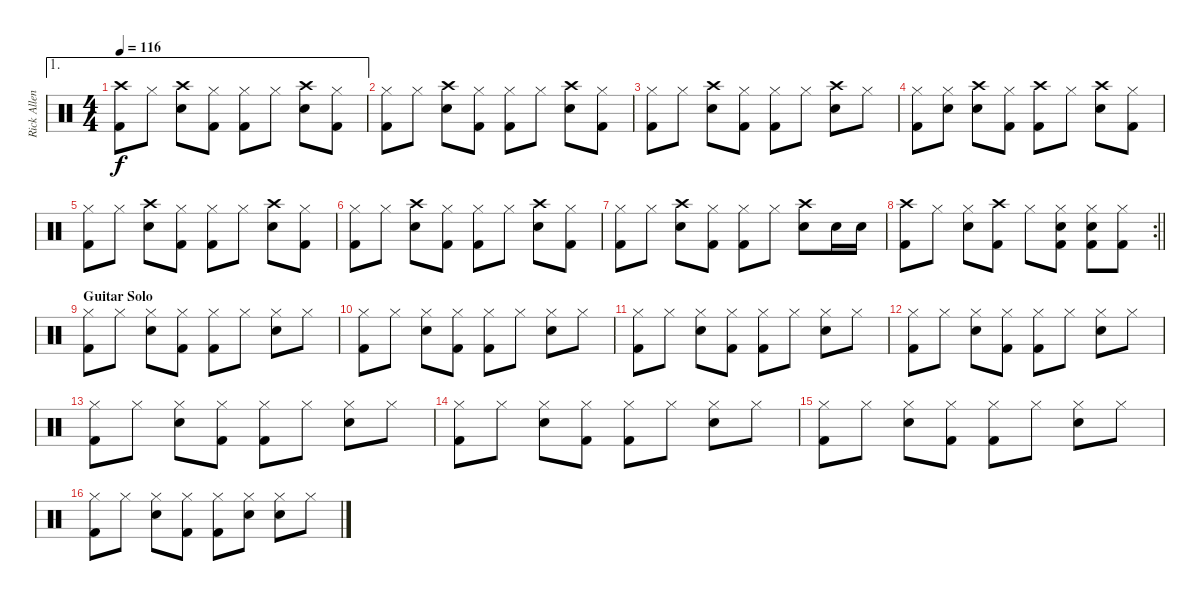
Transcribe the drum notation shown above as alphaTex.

\track ("Rick Allen" "Rick Allen") {instrument percussion}
\staff {score}
\articulation defaults
\ae 1
\ts (4 4)
\tempo 116
\clef neutral
\ks c
("Crash high (hit)" "Kick (hit) 2").8{dy f} "Hi-Hat (closed)".8 ("Crash high (hit)" "Electric Snare (hit)").8 ("Hi-Hat (closed)" "Kick (hit) 2").8 ("Hi-Hat (closed)" "Kick (hit) 2").8 "Hi-Hat (closed)".8 ("Crash high (hit)" "Electric Snare (hit)").8 ("Hi-Hat (closed)" "Kick (hit) 2").8 |
("Hi-Hat (closed)" "Kick (hit) 2").8 "Hi-Hat (closed)".8 ("Crash high (hit)" "Electric Snare (hit)").8 ("Hi-Hat (closed)" "Kick (hit) 2").8 ("Hi-Hat (closed)" "Kick (hit) 2").8 "Hi-Hat (closed)".8 ("Crash high (hit)" "Electric Snare (hit)").8 ("Hi-Hat (closed)" "Kick (hit) 2").8 |
("Hi-Hat (closed)" "Kick (hit) 2").8 "Hi-Hat (closed)".8 ("Crash high (hit)" "Electric Snare (hit)").8 ("Hi-Hat (closed)" "Kick (hit) 2").8 ("Hi-Hat (closed)" "Kick (hit) 2").8 "Hi-Hat (closed)".8 ("Crash high (hit)" "Electric Snare (hit)").8 "Hi-Hat (closed)".8 |
("Hi-Hat (closed)" "Kick (hit) 2").8 ("Hi-Hat (closed)" "Electric Snare (hit)").8 ("Crash high (hit)" "Electric Snare (hit)").8 ("Hi-Hat (closed)" "Kick (hit) 2").8 ("Crash high (hit)" "Kick (hit) 2").8 "Hi-Hat (closed)".8 ("Crash high (hit)" "Electric Snare (hit)").8 ("Hi-Hat (closed)" "Kick (hit) 2").8 |
("Hi-Hat (closed)" "Kick (hit) 2").8 "Hi-Hat (closed)".8 ("Crash high (hit)" "Electric Snare (hit)").8 ("Hi-Hat (closed)" "Kick (hit) 2").8 ("Hi-Hat (closed)" "Kick (hit) 2").8 "Hi-Hat (closed)".8 ("Crash high (hit)" "Electric Snare (hit)").8 ("Hi-Hat (closed)" "Kick (hit) 2").8 |
("Hi-Hat (closed)" "Kick (hit) 2").8 "Hi-Hat (closed)".8 ("Crash high (hit)" "Electric Snare (hit)").8 ("Hi-Hat (closed)" "Kick (hit) 2").8 ("Hi-Hat (closed)" "Kick (hit) 2").8 "Hi-Hat (closed)".8 ("Crash high (hit)" "Electric Snare (hit)").8 ("Hi-Hat (closed)" "Kick (hit) 2").8 |
("Hi-Hat (closed)" "Kick (hit) 2").8 "Hi-Hat (closed)".8 ("Crash high (hit)" "Electric Snare (hit)").8 ("Hi-Hat (closed)" "Kick (hit) 2").8 ("Hi-Hat (closed)" "Kick (hit) 2").8 "Hi-Hat (closed)".8 ("Crash high (hit)" "Electric Snare (hit)").8 "Electric Snare (hit)".16 "Electric Snare (hit)".16 |
\rc 2
\barLineRight lightlight
("Crash high (hit)" "Kick (hit) 2").8 "Hi-Hat (closed)".8 ("Hi-Hat (closed)" "Electric Snare (hit)").8 ("Crash high (hit)" "Kick (hit) 2").8 "Hi-Hat (closed)".8 ("Hi-Hat (closed)" "Electric Snare (hit)" "Kick (hit) 2").8 ("Hi-Hat (closed)" "Electric Snare (hit)" "Kick (hit) 2").8 ("Hi-Hat (closed)" "Kick (hit) 2").8 |
\section ("" "Guitar Solo")
("Hi-Hat (closed)" "Kick (hit) 2").8 "Hi-Hat (closed)".8 ("Hi-Hat (closed)" "Electric Snare (hit)").8 ("Hi-Hat (closed)" "Kick (hit) 2").8 ("Hi-Hat (closed)" "Kick (hit) 2").8 "Hi-Hat (closed)".8 ("Hi-Hat (closed)" "Electric Snare (hit)").8 "Hi-Hat (closed)".8 |
("Hi-Hat (closed)" "Kick (hit) 2").8 "Hi-Hat (closed)".8 ("Hi-Hat (closed)" "Electric Snare (hit)").8 ("Hi-Hat (closed)" "Kick (hit) 2").8 ("Hi-Hat (closed)" "Kick (hit) 2").8 "Hi-Hat (closed)".8 ("Hi-Hat (closed)" "Electric Snare (hit)").8 "Hi-Hat (closed)".8 |
("Hi-Hat (closed)" "Kick (hit) 2").8 "Hi-Hat (closed)".8 ("Hi-Hat (closed)" "Electric Snare (hit)").8 ("Hi-Hat (closed)" "Kick (hit) 2").8 ("Hi-Hat (closed)" "Kick (hit) 2").8 "Hi-Hat (closed)".8 ("Hi-Hat (closed)" "Electric Snare (hit)").8 "Hi-Hat (closed)".8 |
("Hi-Hat (closed)" "Kick (hit) 2").8 "Hi-Hat (closed)".8 ("Hi-Hat (closed)" "Electric Snare (hit)").8 ("Hi-Hat (closed)" "Kick (hit) 2").8 ("Hi-Hat (closed)" "Kick (hit) 2").8 "Hi-Hat (closed)".8 ("Hi-Hat (closed)" "Electric Snare (hit)").8 "Hi-Hat (closed)".8 |
("Hi-Hat (closed)" "Kick (hit) 2").8 "Hi-Hat (closed)".8 ("Hi-Hat (closed)" "Electric Snare (hit)").8 ("Hi-Hat (closed)" "Kick (hit) 2").8 ("Hi-Hat (closed)" "Kick (hit) 2").8 "Hi-Hat (closed)".8 ("Hi-Hat (closed)" "Electric Snare (hit)").8 "Hi-Hat (closed)".8 |
("Hi-Hat (closed)" "Kick (hit) 2").8 "Hi-Hat (closed)".8 ("Hi-Hat (closed)" "Electric Snare (hit)").8 ("Hi-Hat (closed)" "Kick (hit) 2").8 ("Hi-Hat (closed)" "Kick (hit) 2").8 "Hi-Hat (closed)".8 ("Hi-Hat (closed)" "Electric Snare (hit)").8 "Hi-Hat (closed)".8 |
("Hi-Hat (closed)" "Kick (hit) 2").8 "Hi-Hat (closed)".8 ("Hi-Hat (closed)" "Electric Snare (hit)").8 ("Hi-Hat (closed)" "Kick (hit) 2").8 ("Hi-Hat (closed)" "Kick (hit) 2").8 "Hi-Hat (closed)".8 ("Hi-Hat (closed)" "Electric Snare (hit)").8 "Hi-Hat (closed)".8 |
("Hi-Hat (closed)" "Kick (hit) 2").8 "Hi-Hat (closed)".8 ("Hi-Hat (closed)" "Electric Snare (hit)").8 ("Hi-Hat (closed)" "Kick (hit) 2").8 ("Hi-Hat (closed)" "Kick (hit) 2").8 ("Hi-Hat (closed)" "Electric Snare (hit)").8 ("Hi-Hat (closed)" "Electric Snare (hit)").8 "Hi-Hat (closed)".8
